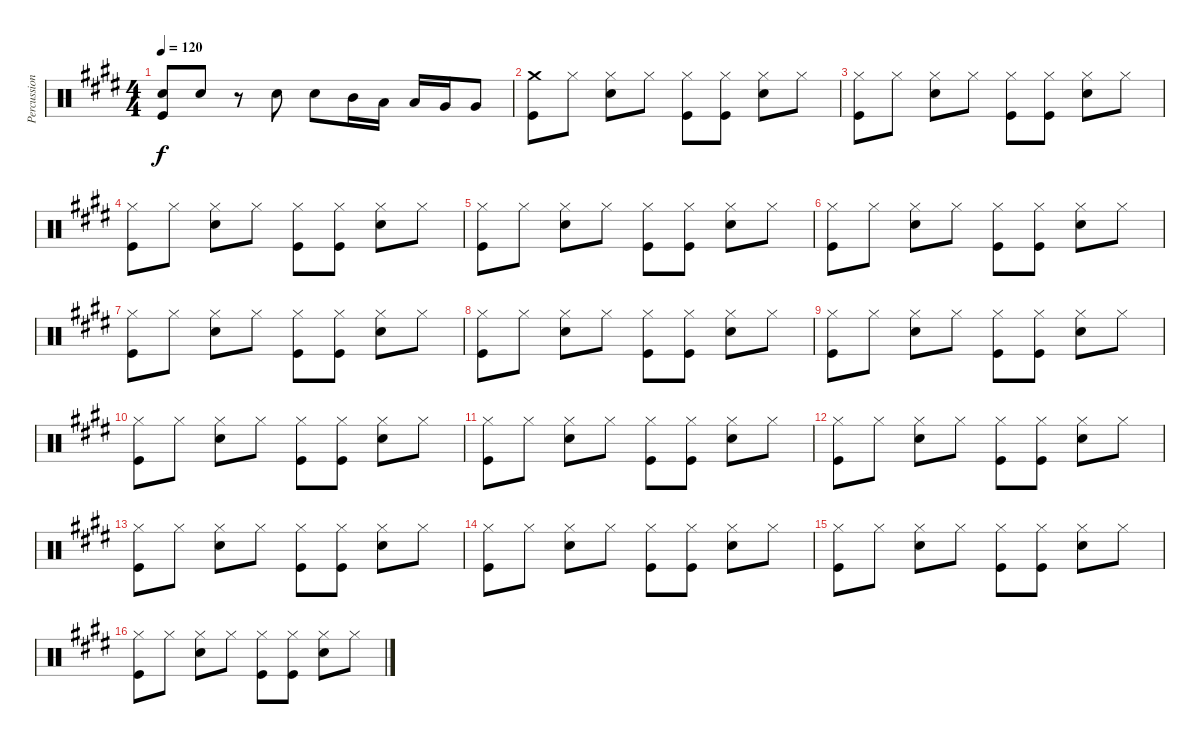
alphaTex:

\track ("Percussion" "Percussion") {instrument percussion}
\staff {score}
\articulation defaults
\ts (4 4)
\tempo 120
\clef neutral
\ks e
("Snare (hit) 2" "Kick (hit)").8{dy f} "Snare (hit) 2".8 r.8 "Snare (hit) 2".8 "Snare (hit) 2".8 "Mid Tom (hit)".16 "Low Tom (hit)".16 "Low Tom (hit)".16 "Very Low Tom (hit)".16 "Very Low Tom (hit)".8 |
("Crash medium (hit)" "Kick (hit)").8 "Hi-Hat (closed)".8 ("Hi-Hat (closed)" "Snare (hit) 2").8 "Hi-Hat (closed)".8 ("Hi-Hat (closed)" "Kick (hit)").8 ("Hi-Hat (closed)" "Kick (hit)").8 ("Hi-Hat (closed)" "Snare (hit) 2").8 "Hi-Hat (closed)".8 |
("Hi-Hat (closed)" "Kick (hit)").8 "Hi-Hat (closed)".8 ("Hi-Hat (closed)" "Snare (hit) 2").8 "Hi-Hat (closed)".8 ("Hi-Hat (closed)" "Kick (hit)").8 ("Hi-Hat (closed)" "Kick (hit)").8 ("Hi-Hat (closed)" "Snare (hit) 2").8 "Hi-Hat (closed)".8 |
("Hi-Hat (closed)" "Kick (hit)").8 "Hi-Hat (closed)".8 ("Hi-Hat (closed)" "Snare (hit) 2").8 "Hi-Hat (closed)".8 ("Hi-Hat (closed)" "Kick (hit)").8 ("Hi-Hat (closed)" "Kick (hit)").8 ("Hi-Hat (closed)" "Snare (hit) 2").8 "Hi-Hat (closed)".8 |
("Hi-Hat (closed)" "Kick (hit)").8 "Hi-Hat (closed)".8 ("Hi-Hat (closed)" "Snare (hit) 2").8 "Hi-Hat (closed)".8 ("Hi-Hat (closed)" "Kick (hit)").8 ("Hi-Hat (closed)" "Kick (hit)").8 ("Hi-Hat (closed)" "Snare (hit) 2").8 "Hi-Hat (closed)".8 |
("Hi-Hat (closed)" "Kick (hit)").8 "Hi-Hat (closed)".8 ("Hi-Hat (closed)" "Snare (hit) 2").8 "Hi-Hat (closed)".8 ("Hi-Hat (closed)" "Kick (hit)").8 ("Hi-Hat (closed)" "Kick (hit)").8 ("Hi-Hat (closed)" "Snare (hit) 2").8 "Hi-Hat (closed)".8 |
("Hi-Hat (closed)" "Kick (hit)").8 "Hi-Hat (closed)".8 ("Hi-Hat (closed)" "Snare (hit) 2").8 "Hi-Hat (closed)".8 ("Hi-Hat (closed)" "Kick (hit)").8 ("Hi-Hat (closed)" "Kick (hit)").8 ("Hi-Hat (closed)" "Snare (hit) 2").8 "Hi-Hat (closed)".8 |
("Hi-Hat (closed)" "Kick (hit)").8 "Hi-Hat (closed)".8 ("Hi-Hat (closed)" "Snare (hit) 2").8 "Hi-Hat (closed)".8 ("Hi-Hat (closed)" "Kick (hit)").8 ("Hi-Hat (closed)" "Kick (hit)").8 ("Hi-Hat (closed)" "Snare (hit) 2").8 "Hi-Hat (closed)".8 |
("Hi-Hat (closed)" "Kick (hit)").8 "Hi-Hat (closed)".8 ("Hi-Hat (closed)" "Snare (hit) 2").8 "Hi-Hat (closed)".8 ("Hi-Hat (closed)" "Kick (hit)").8 ("Hi-Hat (closed)" "Kick (hit)").8 ("Hi-Hat (closed)" "Snare (hit) 2").8 "Hi-Hat (closed)".8 |
("Hi-Hat (closed)" "Kick (hit)").8 "Hi-Hat (closed)".8 ("Hi-Hat (closed)" "Snare (hit) 2").8 "Hi-Hat (closed)".8 ("Hi-Hat (closed)" "Kick (hit)").8 ("Hi-Hat (closed)" "Kick (hit)").8 ("Hi-Hat (closed)" "Snare (hit) 2").8 "Hi-Hat (closed)".8 |
("Hi-Hat (closed)" "Kick (hit)").8 "Hi-Hat (closed)".8 ("Hi-Hat (closed)" "Snare (hit) 2").8 "Hi-Hat (closed)".8 ("Hi-Hat (closed)" "Kick (hit)").8 ("Hi-Hat (closed)" "Kick (hit)").8 ("Hi-Hat (closed)" "Snare (hit) 2").8 "Hi-Hat (closed)".8 |
("Hi-Hat (closed)" "Kick (hit)").8 "Hi-Hat (closed)".8 ("Hi-Hat (closed)" "Snare (hit) 2").8 "Hi-Hat (closed)".8 ("Hi-Hat (closed)" "Kick (hit)").8 ("Hi-Hat (closed)" "Kick (hit)").8 ("Hi-Hat (closed)" "Snare (hit) 2").8 "Hi-Hat (closed)".8 |
("Hi-Hat (closed)" "Kick (hit)").8 "Hi-Hat (closed)".8 ("Hi-Hat (closed)" "Snare (hit) 2").8 "Hi-Hat (closed)".8 ("Hi-Hat (closed)" "Kick (hit)").8 ("Hi-Hat (closed)" "Kick (hit)").8 ("Hi-Hat (closed)" "Snare (hit) 2").8 "Hi-Hat (closed)".8 |
("Hi-Hat (closed)" "Kick (hit)").8 "Hi-Hat (closed)".8 ("Hi-Hat (closed)" "Snare (hit) 2").8 "Hi-Hat (closed)".8 ("Hi-Hat (closed)" "Kick (hit)").8 ("Hi-Hat (closed)" "Kick (hit)").8 ("Hi-Hat (closed)" "Snare (hit) 2").8 "Hi-Hat (closed)".8 |
("Hi-Hat (closed)" "Kick (hit)").8 "Hi-Hat (closed)".8 ("Hi-Hat (closed)" "Snare (hit) 2").8 "Hi-Hat (closed)".8 ("Hi-Hat (closed)" "Kick (hit)").8 ("Hi-Hat (closed)" "Kick (hit)").8 ("Hi-Hat (closed)" "Snare (hit) 2").8 "Hi-Hat (closed)".8 |
("Hi-Hat (closed)" "Kick (hit)").8 "Hi-Hat (closed)".8 ("Hi-Hat (closed)" "Snare (hit) 2").8 "Hi-Hat (closed)".8 ("Hi-Hat (closed)" "Kick (hit)").8 ("Hi-Hat (closed)" "Kick (hit)").8 ("Hi-Hat (closed)" "Snare (hit) 2").8 "Hi-Hat (closed)".8
